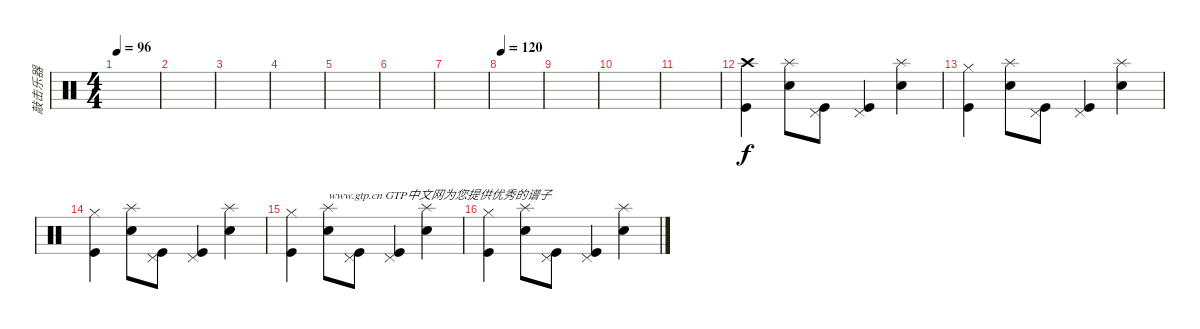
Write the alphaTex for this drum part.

\track ("敲击乐器" "敲击乐器") {instrument percussion}
\staff {score}
\articulation defaults
\ts (4 4)
\tempo 96
\clef neutral
\ks c
|
|
|
|
|
|
|
\tempo 120
|
|
|
|
("Crash high (hit)" "Kick (hit)").4 ("Splash (hit)" "Snare (hit) 2").8 ("Pedal Hi-Hat (hit)" "Kick (hit)").8 ("Pedal Hi-Hat (hit)" "Kick (hit)").4 ("Splash (hit)" "Snare (hit) 2").4 |
("Hi-Hat (closed)" "Kick (hit)").4 ("Splash (hit)" "Snare (hit) 2").8 ("Pedal Hi-Hat (hit)" "Kick (hit)").8 ("Pedal Hi-Hat (hit)" "Kick (hit)").4 ("Splash (hit)" "Snare (hit) 2").4 |
("Hi-Hat (closed)" "Kick (hit)").4 ("Splash (hit)" "Snare (hit) 2").8 ("Pedal Hi-Hat (hit)" "Kick (hit)").8 ("Pedal Hi-Hat (hit)" "Kick (hit)").4 ("Splash (hit)" "Snare (hit) 2").4 |
("Hi-Hat (closed)" "Kick (hit)").4 ("Splash (hit)" "Snare (hit) 2").8{txt "www.gtp.cn GTP中文网为您提供优秀的谱子"} ("Pedal Hi-Hat (hit)" "Kick (hit)").8 ("Pedal Hi-Hat (hit)" "Kick (hit)").4 ("Splash (hit)" "Snare (hit) 2").4 |
("Hi-Hat (closed)" "Kick (hit)").4 ("Splash (hit)" "Snare (hit) 2").8 ("Pedal Hi-Hat (hit)" "Kick (hit)").8 ("Pedal Hi-Hat (hit)" "Kick (hit)").4 ("Splash (hit)" "Snare (hit) 2").4
